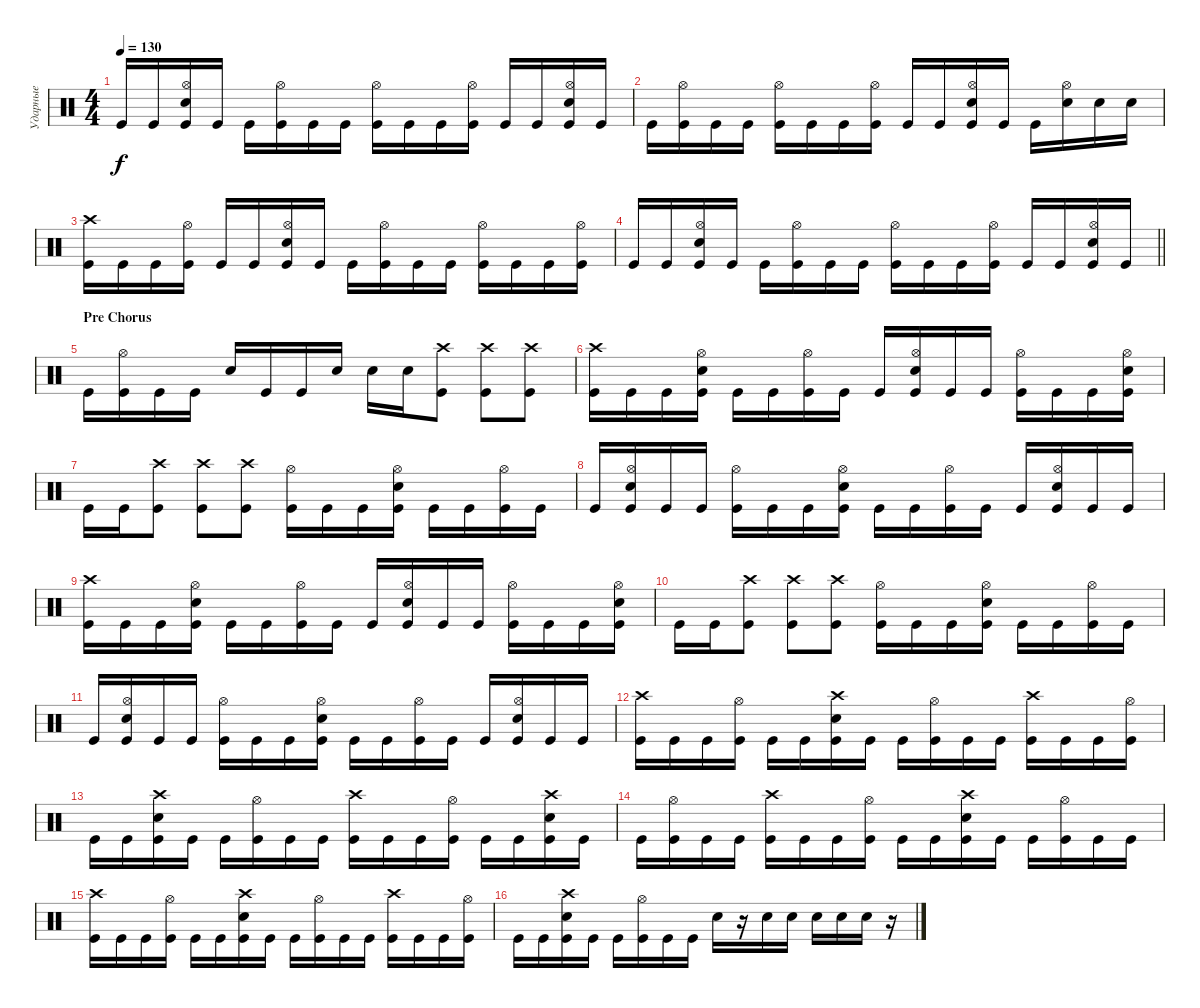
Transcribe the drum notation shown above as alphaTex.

\track ("Ударные" "Ударные") {instrument percussion}
\staff {score}
\articulation defaults
\ts (4 4)
\tempo 130
\clef neutral
\ks c "Kick (hit)".16{dy f} "Kick (hit)".16
("Hi-Hat (open)" "Snare (hit) 2" "Kick (hit)").16 "Kick (hit)".16 "Kick (hit)".16 ("Hi-Hat (open)" "Kick (hit)").16 "Kick (hit)".16 "Kick (hit)".16 ("Hi-Hat (open)" "Kick (hit)").16 "Kick (hit)".16 "Kick (hit)".16 ("Hi-Hat (open)" "Kick (hit)").16 "Kick (hit)".16 "Kick (hit)".16 ("Hi-Hat (open)" "Snare (hit) 2" "Kick (hit)").16 "Kick (hit)".16 |
"Kick (hit)".16 ("Hi-Hat (open)" "Kick (hit)").16 "Kick (hit)".16 "Kick (hit)".16 ("Hi-Hat (open)" "Kick (hit)").16 "Kick (hit)".16 "Kick (hit)".16 ("Hi-Hat (open)" "Kick (hit)").16 "Kick (hit)".16 "Kick (hit)".16 ("Snare (hit) 2" "Hi-Hat (open)" "Kick (hit)").16 "Kick (hit)".16 "Kick (hit)".16 ("Hi-Hat (open)" "Snare (hit) 2").16 "Snare (hit) 2".16 "Snare (hit) 2".16 |
("Crash high (hit)" "Kick (hit)").16 "Kick (hit)".16 "Kick (hit)".16 ("Hi-Hat (open)" "Kick (hit)").16 "Kick (hit)".16 "Kick (hit)".16 ("Hi-Hat (open)" "Snare (hit) 2" "Kick (hit)").16 "Kick (hit)".16 "Kick (hit)".16 ("Hi-Hat (open)" "Kick (hit)").16 "Kick (hit)".16 "Kick (hit)".16 ("Hi-Hat (open)" "Kick (hit)").16 "Kick (hit)".16 "Kick (hit)".16 ("Hi-Hat (open)" "Kick (hit)").16 |
\barLineRight lightlight "Kick (hit)".16 "Kick (hit)".16
("Hi-Hat (open)" "Snare (hit) 2" "Kick (hit)").16 "Kick (hit)".16 "Kick (hit)".16 ("Hi-Hat (open)" "Kick (hit)").16 "Kick (hit)".16 "Kick (hit)".16 ("Hi-Hat (open)" "Kick (hit)").16 "Kick (hit)".16 "Kick (hit)".16 ("Hi-Hat (open)" "Kick (hit)").16 "Kick (hit)".16 "Kick (hit)".16 ("Hi-Hat (open)" "Snare (hit) 2" "Kick (hit)").16 "Kick (hit)".16 |
\section ("" "Pre Chorus")
"Kick (hit)".16 ("Hi-Hat (open)" "Kick (hit)").16 "Kick (hit)".16 "Kick (hit)".16 "Snare (hit) 2".16 "Kick (hit)".16 "Kick (hit)".16 "Snare (hit) 2".16 "Snare (hit) 2".16 "Snare (hit) 2".16 ("Crash high (hit)" "Kick (hit)").8 ("Crash high (hit)" "Kick (hit)").8 ("Crash high (hit)" "Kick (hit)").8 |
("Crash high (hit)" "Kick (hit)").16 "Kick (hit)".16 "Kick (hit)".16 ("Hi-Hat (open)" "Snare (hit) 2" "Kick (hit)").16 "Kick (hit)".16 "Kick (hit)".16 ("Hi-Hat (open)" "Kick (hit)").16 "Kick (hit)".16 "Kick (hit)".16 ("Snare (hit) 2" "Hi-Hat (open)" "Kick (hit)").16 "Kick (hit)".16 "Kick (hit)".16 ("Hi-Hat (open)" "Kick (hit)").16 "Kick (hit)".16 "Kick (hit)".16 ("Snare (hit) 2" "Hi-Hat (open)" "Kick (hit)").16 |
"Kick (hit)".16 "Kick (hit)".16 ("Crash high (hit)" "Kick (hit)").8 ("Crash high (hit)" "Kick (hit)").8 ("Crash high (hit)" "Kick (hit)").8 ("Hi-Hat (open)" "Kick (hit)").16 "Kick (hit)".16 "Kick (hit)".16 ("Hi-Hat (open)" "Snare (hit) 2" "Kick (hit)").16 "Kick (hit)".16 "Kick (hit)".16 ("Hi-Hat (open)" "Kick (hit)").16 "Kick (hit)".16 |
"Kick (hit)".16 ("Snare (hit) 2" "Hi-Hat (open)" "Kick (hit)").16 "Kick (hit)".16 "Kick (hit)".16 ("Hi-Hat (open)" "Kick (hit)").16 "Kick (hit)".16 "Kick (hit)".16 ("Snare (hit) 2" "Hi-Hat (open)" "Kick (hit)").16 "Kick (hit)".16 "Kick (hit)".16 ("Hi-Hat (open)" "Kick (hit)").16 "Kick (hit)".16 "Kick (hit)".16 ("Snare (hit) 2" "Hi-Hat (open)" "Kick (hit)").16 "Kick (hit)".16 "Kick (hit)".16 |
("Crash high (hit)" "Kick (hit)").16 "Kick (hit)".16 "Kick (hit)".16 ("Hi-Hat (open)" "Snare (hit) 2" "Kick (hit)").16 "Kick (hit)".16 "Kick (hit)".16 ("Hi-Hat (open)" "Kick (hit)").16 "Kick (hit)".16 "Kick (hit)".16 ("Snare (hit) 2" "Hi-Hat (open)" "Kick (hit)").16 "Kick (hit)".16 "Kick (hit)".16 ("Hi-Hat (open)" "Kick (hit)").16 "Kick (hit)".16 "Kick (hit)".16 ("Snare (hit) 2" "Hi-Hat (open)" "Kick (hit)").16 |
"Kick (hit)".16 "Kick (hit)".16 ("Crash high (hit)" "Kick (hit)").8 ("Crash high (hit)" "Kick (hit)").8 ("Crash high (hit)" "Kick (hit)").8 ("Hi-Hat (open)" "Kick (hit)").16 "Kick (hit)".16 "Kick (hit)".16 ("Hi-Hat (open)" "Snare (hit) 2" "Kick (hit)").16 "Kick (hit)".16 "Kick (hit)".16 ("Hi-Hat (open)" "Kick (hit)").16 "Kick (hit)".16 |
"Kick (hit)".16 ("Snare (hit) 2" "Hi-Hat (open)" "Kick (hit)").16 "Kick (hit)".16 "Kick (hit)".16 ("Hi-Hat (open)" "Kick (hit)").16 "Kick (hit)".16 "Kick (hit)".16 ("Snare (hit) 2" "Hi-Hat (open)" "Kick (hit)").16 "Kick (hit)".16 "Kick (hit)".16 ("Hi-Hat (open)" "Kick (hit)").16 "Kick (hit)".16 "Kick (hit)".16 ("Snare (hit) 2" "Hi-Hat (open)" "Kick (hit)").16 "Kick (hit)".16 "Kick (hit)".16 |
("Crash high (hit)" "Kick (hit)").16 "Kick (hit)".16 "Kick (hit)".16 ("Hi-Hat (open)" "Kick (hit)").16 "Kick (hit)".16 "Kick (hit)".16 ("Crash high (hit)" "Snare (hit) 2" "Kick (hit)").16 "Kick (hit)".16 "Kick (hit)".16 ("Hi-Hat (open)" "Kick (hit)").16 "Kick (hit)".16 "Kick (hit)".16 ("Crash high (hit)" "Kick (hit)").16 "Kick (hit)".16 "Kick (hit)".16 ("Hi-Hat (open)" "Kick (hit)").16 |
"Kick (hit)".16 "Kick (hit)".16 ("Crash high (hit)" "Snare (hit) 2" "Kick (hit)").16 "Kick (hit)".16 "Kick (hit)".16 ("Hi-Hat (open)" "Kick (hit)").16 "Kick (hit)".16 "Kick (hit)".16 ("Crash high (hit)" "Kick (hit)").16 "Kick (hit)".16 "Kick (hit)".16 ("Hi-Hat (open)" "Kick (hit)").16 "Kick (hit)".16 "Kick (hit)".16 ("Crash high (hit)" "Snare (hit) 2" "Kick (hit)").16 "Kick (hit)".16 |
"Kick (hit)".16 ("Hi-Hat (open)" "Kick (hit)").16 "Kick (hit)".16 "Kick (hit)".16 ("Crash high (hit)" "Kick (hit)").16 "Kick (hit)".16 "Kick (hit)".16 ("Hi-Hat (open)" "Kick (hit)").16 "Kick (hit)".16 "Kick (hit)".16 ("Snare (hit) 2" "Crash high (hit)" "Kick (hit)").16 "Kick (hit)".16 "Kick (hit)".16 ("Hi-Hat (open)" "Kick (hit)").16 "Kick (hit)".16 "Kick (hit)".16 |
("Crash high (hit)" "Kick (hit)").16 "Kick (hit)".16 "Kick (hit)".16 ("Hi-Hat (open)" "Kick (hit)").16 "Kick (hit)".16 "Kick (hit)".16 ("Crash high (hit)" "Snare (hit) 2" "Kick (hit)").16 "Kick (hit)".16 "Kick (hit)".16 ("Hi-Hat (open)" "Kick (hit)").16 "Kick (hit)".16 "Kick (hit)".16 ("Crash high (hit)" "Kick (hit)").16 "Kick (hit)".16 "Kick (hit)".16 ("Hi-Hat (open)" "Kick (hit)").16 |
"Kick (hit)".16 "Kick (hit)".16 ("Crash high (hit)" "Snare (hit) 2" "Kick (hit)").16 "Kick (hit)".16 "Kick (hit)".16 ("Hi-Hat (open)" "Kick (hit)").16 "Kick (hit)".16 "Kick (hit)".16 "Snare (hit) 2".16 r.16 "Snare (hit) 2".16 "Snare (hit) 2".16 "Snare (hit) 2".16 "Snare (hit) 2".16 "Snare (hit) 2".16 r.16
